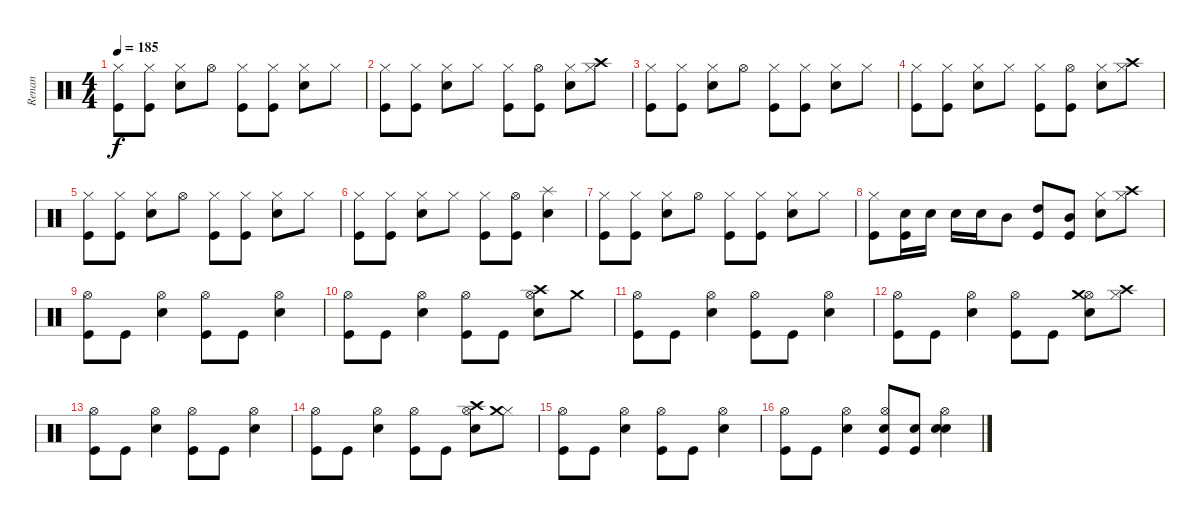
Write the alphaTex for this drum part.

\track ("Renan" "Renan") {instrument percussion}
\staff {score}
\articulation defaults
\ts (4 4)
\tempo 185
\clef neutral
\ks c
("Hi-Hat (closed)" "Kick (hit)").8{dy f} ("Hi-Hat (closed)" "Kick (hit)").8 ("Hi-Hat (closed)" "Snare (hit) 2").8 "Hi-Hat (open)".8 ("Hi-Hat (closed)" "Kick (hit)").8 ("Hi-Hat (closed)" "Kick (hit)").8 ("Hi-Hat (closed)" "Snare (hit) 2").8 "Hi-Hat (closed)".8 |
("Hi-Hat (closed)" "Kick (hit)").8 ("Hi-Hat (closed)" "Kick (hit)").8 ("Hi-Hat (closed)" "Snare (hit) 2").8 "Hi-Hat (closed)".8 ("Hi-Hat (closed)" "Kick (hit)").8 ("Hi-Hat (open)" "Kick (hit)").8 ("Hi-Hat (closed)" "Snare (hit) 2").8 ("Hi-Hat (closed)" "Crash high (hit)").8 |
("Hi-Hat (closed)" "Kick (hit)").8 ("Hi-Hat (closed)" "Kick (hit)").8 ("Hi-Hat (closed)" "Snare (hit) 2").8 "Hi-Hat (open)".8 ("Hi-Hat (closed)" "Kick (hit)").8 ("Hi-Hat (closed)" "Kick (hit)").8 ("Hi-Hat (closed)" "Snare (hit) 2").8 "Hi-Hat (closed)".8 |
("Hi-Hat (closed)" "Kick (hit)").8 ("Hi-Hat (closed)" "Kick (hit)").8 ("Hi-Hat (closed)" "Snare (hit) 2").8 "Hi-Hat (closed)".8 ("Hi-Hat (closed)" "Kick (hit)").8 ("Hi-Hat (open)" "Kick (hit)").8 ("Hi-Hat (closed)" "Snare (hit) 2").8 ("Hi-Hat (closed)" "Crash high (hit)").8 |
("Hi-Hat (closed)" "Kick (hit)").8 ("Hi-Hat (closed)" "Kick (hit)").8 ("Hi-Hat (closed)" "Snare (hit) 2").8 "Hi-Hat (open)".8 ("Hi-Hat (closed)" "Kick (hit)").8 ("Hi-Hat (closed)" "Kick (hit)").8 ("Hi-Hat (closed)" "Snare (hit) 2").8 "Hi-Hat (closed)".8 |
("Hi-Hat (closed)" "Kick (hit)").8 ("Hi-Hat (closed)" "Kick (hit)").8 ("Hi-Hat (closed)" "Snare (hit) 2").8 "Hi-Hat (closed)".8 ("Hi-Hat (closed)" "Kick (hit)").8 ("Hi-Hat (open)" "Kick (hit)").8 ("Splash (hit)" "Snare (hit) 2").4 |
("Hi-Hat (closed)" "Kick (hit)").8 ("Hi-Hat (closed)" "Kick (hit)").8 ("Hi-Hat (closed)" "Snare (hit) 2").8 "Hi-Hat (open)".8 ("Hi-Hat (closed)" "Kick (hit)").8 ("Hi-Hat (closed)" "Kick (hit)").8 ("Hi-Hat (closed)" "Snare (hit) 2").8 "Hi-Hat (closed)".8 |
("Hi-Hat (closed)" "Kick (hit)").8 ("Electric Snare (hit)" "Kick (hit)").16 "Electric Snare (hit)".16 "Electric Snare (hit)".16 "Electric Snare (hit)".16 "Mid Tom (hit)".8 ("High Tom (hit)" "Kick (hit)").8 ("Mid Tom (hit)" "Kick (hit)").8 ("Hi-Hat (closed)" "Snare (hit) 2").8 ("Hi-Hat (closed)" "Crash high (hit)").8 |
("Hi-Hat (open)" "Kick (hit)").8 "Kick (hit)".8 ("Hi-Hat (open)" "Snare (hit) 2").4 ("Hi-Hat (open)" "Kick (hit)").8 "Kick (hit)".8 ("Hi-Hat (open)" "Snare (hit) 2").4 |
("Hi-Hat (open)" "Kick (hit)").8 "Kick (hit)".8 ("Hi-Hat (open)" "Snare (hit) 2").4 ("Hi-Hat (open)" "Kick (hit)").8 "Kick (hit)".8 ("Hi-Hat (open)" "Crash high (hit)" "Snare (hit) 2").8 "Crash medium (hit)".8 |
("Hi-Hat (open)" "Kick (hit)").8 "Kick (hit)".8 ("Hi-Hat (open)" "Snare (hit) 2").4 ("Hi-Hat (open)" "Kick (hit)").8 "Kick (hit)".8 ("Hi-Hat (open)" "Snare (hit) 2").4 |
("Hi-Hat (open)" "Kick (hit)").8 "Kick (hit)".8 ("Hi-Hat (open)" "Snare (hit) 2").4 ("Hi-Hat (open)" "Kick (hit)").8 "Kick (hit)".8 ("Hi-Hat (open)" "Crash medium (hit)" "Snare (hit) 2").8 ("Hi-Hat (closed)" "Crash high (hit)").8 |
("Hi-Hat (open)" "Kick (hit)").8 "Kick (hit)".8 ("Hi-Hat (open)" "Snare (hit) 2").4 ("Hi-Hat (open)" "Kick (hit)").8 "Kick (hit)".8 ("Hi-Hat (open)" "Snare (hit) 2").4 |
("Hi-Hat (open)" "Kick (hit)").8 "Kick (hit)".8 ("Hi-Hat (open)" "Snare (hit) 2").4 ("Hi-Hat (open)" "Kick (hit)").8 "Kick (hit)".8 ("Hi-Hat (open)" "Crash high (hit)" "Snare (hit) 2").8 ("Hi-Hat (closed)" "Crash medium (hit)").8 |
("Hi-Hat (open)" "Kick (hit)").8 "Kick (hit)".8 ("Hi-Hat (open)" "Snare (hit) 2").4 ("Hi-Hat (open)" "Kick (hit)").8 "Kick (hit)".8 ("Hi-Hat (open)" "Snare (hit) 2").4 |
("Hi-Hat (open)" "Kick (hit)").8 "Kick (hit)".8 ("Hi-Hat (open)" "Snare (hit) 2").4 ("Hi-Hat (open)" "Electric Snare (hit)" "Kick (hit)").8 ("Electric Snare (hit)" "Kick (hit)").8 ("Hi-Hat (open)" "Electric Snare (hit)" "Snare (hit) 2").4
